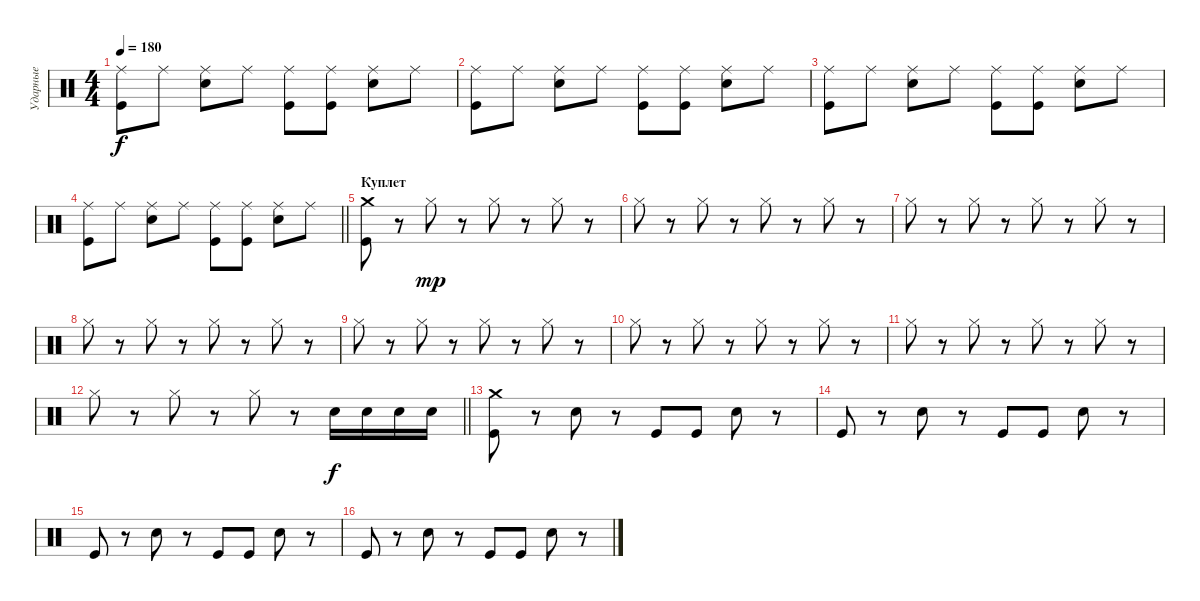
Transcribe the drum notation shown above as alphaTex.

\track ("Ударные" "Ударные") {instrument percussion}
\staff {score}
\articulation defaults
\ts (4 4)
\tempo 180
\clef neutral
\ks c
("Ride (middle)" "Kick (hit)").8{dy f} "Ride (middle)".8 ("Ride (middle)" "Electric Snare (hit)").8 "Ride (middle)".8 ("Ride (middle)" "Kick (hit)").8 ("Ride (middle)" "Kick (hit)").8 ("Ride (middle)" "Electric Snare (hit)").8 "Ride (middle)".8 |
("Ride (middle)" "Kick (hit)").8 "Ride (middle)".8 ("Ride (middle)" "Electric Snare (hit)").8 "Ride (middle)".8 ("Ride (middle)" "Kick (hit)").8 ("Ride (middle)" "Kick (hit)").8 ("Ride (middle)" "Electric Snare (hit)").8 "Ride (middle)".8 |
("Ride (middle)" "Kick (hit)").8 "Ride (middle)".8 ("Ride (middle)" "Electric Snare (hit)").8 "Ride (middle)".8 ("Ride (middle)" "Kick (hit)").8 ("Ride (middle)" "Kick (hit)").8 ("Ride (middle)" "Electric Snare (hit)").8 "Ride (middle)".8 |
\barLineRight lightlight
("Ride (middle)" "Kick (hit)").8 "Ride (middle)".8 ("Ride (middle)" "Electric Snare (hit)").8 "Ride (middle)".8 ("Ride (middle)" "Kick (hit)").8 ("Ride (middle)" "Kick (hit)").8 ("Ride (middle)" "Electric Snare (hit)").8 "Ride (middle)".8 |
\section ("" "Куплет")
("Crash medium (hit)" "Kick (hit)").8 r.8 "Hi-Hat (closed)".8{dy mp} r.8 "Hi-Hat (closed)".8 r.8 "Hi-Hat (closed)".8 r.8 |
"Hi-Hat (closed)".8 r.8 "Hi-Hat (closed)".8 r.8 "Hi-Hat (closed)".8 r.8 "Hi-Hat (closed)".8 r.8 |
"Hi-Hat (closed)".8 r.8 "Hi-Hat (closed)".8 r.8 "Hi-Hat (closed)".8 r.8 "Hi-Hat (closed)".8 r.8 |
"Hi-Hat (closed)".8 r.8 "Hi-Hat (closed)".8 r.8 "Hi-Hat (closed)".8 r.8 "Hi-Hat (closed)".8 r.8 |
"Hi-Hat (closed)".8 r.8 "Hi-Hat (closed)".8 r.8 "Hi-Hat (closed)".8 r.8 "Hi-Hat (closed)".8 r.8 |
"Hi-Hat (closed)".8 r.8 "Hi-Hat (closed)".8 r.8 "Hi-Hat (closed)".8 r.8 "Hi-Hat (closed)".8 r.8 |
"Hi-Hat (closed)".8 r.8 "Hi-Hat (closed)".8 r.8 "Hi-Hat (closed)".8 r.8 "Hi-Hat (closed)".8 r.8 |
\barLineRight lightlight "Hi-Hat (closed)".8
r.8 "Hi-Hat (closed)".8 r.8 "Hi-Hat (closed)".8 r.8 "Electric Snare (hit)".16{dy f} "Electric Snare (hit)".16 "Electric Snare (hit)".16 "Electric Snare (hit)".16 |
\section ("" " ")
("Crash medium (hit)" "Kick (hit)").8 r.8 "Electric Snare (hit)".8 r.8 "Kick (hit)".8 "Kick (hit)".8 "Electric Snare (hit)".8 r.8 |
"Kick (hit)".8 r.8 "Electric Snare (hit)".8 r.8 "Kick (hit)".8 "Kick (hit)".8 "Electric Snare (hit)".8 r.8 |
"Kick (hit)".8 r.8 "Electric Snare (hit)".8 r.8 "Kick (hit)".8 "Kick (hit)".8 "Electric Snare (hit)".8 r.8 |
"Kick (hit)".8 r.8 "Electric Snare (hit)".8 r.8 "Kick (hit)".8 "Kick (hit)".8 "Electric Snare (hit)".8 r.8
